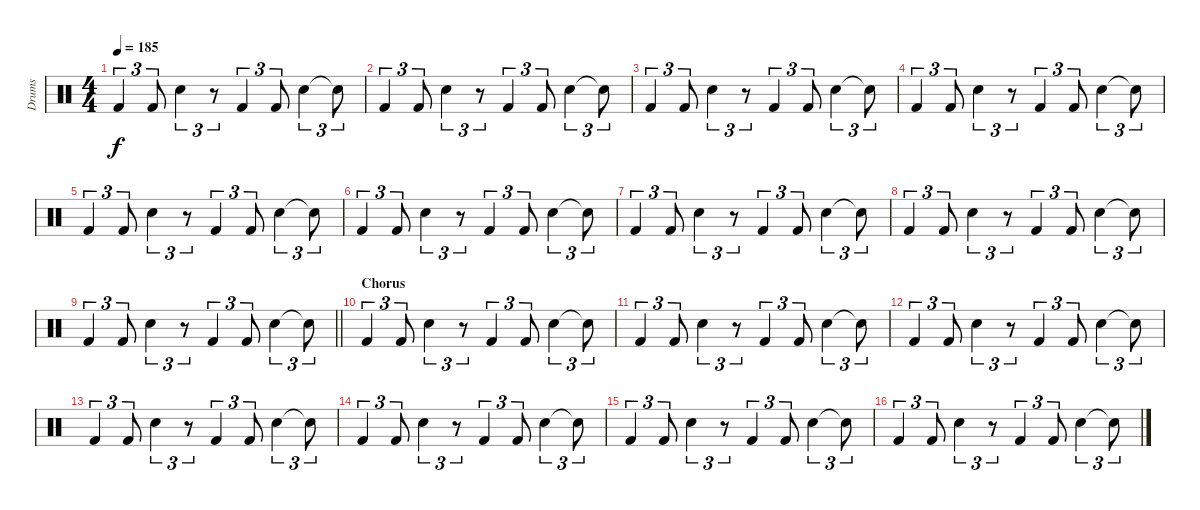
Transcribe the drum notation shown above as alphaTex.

\track ("Drums" "Drums") {instrument percussion}
\staff {score}
\articulation defaults
\ts (4 4)
\tempo 185
\clef neutral
\ks c "Kick (hit) 2".4{tu (3 2) dy f} "Kick (hit) 2".8{tu (3 2)} "Snare (hit) 2".4{tu (3 2)}
r.8{tu (3 2)} "Kick (hit) 2".4{tu (3 2)} "Kick (hit) 2".8{tu (3 2)} "Snare (hit) 2".4{tu (3 2)} "Snare (hit)"{t}.8{tu (3 2)} |
"Kick (hit) 2".4{tu (3 2)} "Kick (hit) 2".8{tu (3 2)} "Snare (hit) 2".4{tu (3 2)} r.8{tu (3 2)} "Kick (hit) 2".4{tu (3 2)} "Kick (hit) 2".8{tu (3 2)} "Snare (hit) 2".4{tu (3 2)} "Snare (hit)"{t}.8{tu (3 2)} |
"Kick (hit) 2".4{tu (3 2)} "Kick (hit) 2".8{tu (3 2)} "Snare (hit) 2".4{tu (3 2)} r.8{tu (3 2)} "Kick (hit) 2".4{tu (3 2)} "Kick (hit) 2".8{tu (3 2)} "Snare (hit) 2".4{tu (3 2)} "Snare (hit)"{t}.8{tu (3 2)} |
"Kick (hit) 2".4{tu (3 2)} "Kick (hit) 2".8{tu (3 2)} "Snare (hit) 2".4{tu (3 2)} r.8{tu (3 2)} "Kick (hit) 2".4{tu (3 2)} "Kick (hit) 2".8{tu (3 2)} "Snare (hit) 2".4{tu (3 2)} "Snare (hit)"{t}.8{tu (3 2)} |
"Kick (hit) 2".4{tu (3 2)} "Kick (hit) 2".8{tu (3 2)} "Snare (hit) 2".4{tu (3 2)} r.8{tu (3 2)} "Kick (hit) 2".4{tu (3 2)} "Kick (hit) 2".8{tu (3 2)} "Snare (hit) 2".4{tu (3 2)} "Snare (hit)"{t}.8{tu (3 2)} |
"Kick (hit) 2".4{tu (3 2)} "Kick (hit) 2".8{tu (3 2)} "Snare (hit) 2".4{tu (3 2)} r.8{tu (3 2)} "Kick (hit) 2".4{tu (3 2)} "Kick (hit) 2".8{tu (3 2)} "Snare (hit) 2".4{tu (3 2)} "Snare (hit)"{t}.8{tu (3 2)} |
"Kick (hit) 2".4{tu (3 2)} "Kick (hit) 2".8{tu (3 2)} "Snare (hit) 2".4{tu (3 2)} r.8{tu (3 2)} "Kick (hit) 2".4{tu (3 2)} "Kick (hit) 2".8{tu (3 2)} "Snare (hit) 2".4{tu (3 2)} "Snare (hit)"{t}.8{tu (3 2)} |
"Kick (hit) 2".4{tu (3 2)} "Kick (hit) 2".8{tu (3 2)} "Snare (hit) 2".4{tu (3 2)} r.8{tu (3 2)} "Kick (hit) 2".4{tu (3 2)} "Kick (hit) 2".8{tu (3 2)} "Snare (hit) 2".4{tu (3 2)} "Snare (hit)"{t}.8{tu (3 2)} |
\barLineRight lightlight "Kick (hit) 2".4{tu (3 2)} "Kick (hit) 2".8{tu (3 2)} "Snare (hit) 2".4{tu (3 2)}
r.8{tu (3 2)} "Kick (hit) 2".4{tu (3 2)} "Kick (hit) 2".8{tu (3 2)} "Snare (hit) 2".4{tu (3 2)} "Snare (hit)"{t}.8{tu (3 2)} |
\section ("" "Chorus")
"Kick (hit) 2".4{tu (3 2)} "Kick (hit) 2".8{tu (3 2)} "Snare (hit) 2".4{tu (3 2)} r.8{tu (3 2)} "Kick (hit) 2".4{tu (3 2)} "Kick (hit) 2".8{tu (3 2)} "Snare (hit) 2".4{tu (3 2)} "Snare (hit)"{t}.8{tu (3 2)} |
"Kick (hit) 2".4{tu (3 2)} "Kick (hit) 2".8{tu (3 2)} "Snare (hit) 2".4{tu (3 2)} r.8{tu (3 2)} "Kick (hit) 2".4{tu (3 2)} "Kick (hit) 2".8{tu (3 2)} "Snare (hit) 2".4{tu (3 2)} "Snare (hit)"{t}.8{tu (3 2)} |
"Kick (hit) 2".4{tu (3 2)} "Kick (hit) 2".8{tu (3 2)} "Snare (hit) 2".4{tu (3 2)} r.8{tu (3 2)} "Kick (hit) 2".4{tu (3 2)} "Kick (hit) 2".8{tu (3 2)} "Snare (hit) 2".4{tu (3 2)} "Snare (hit)"{t}.8{tu (3 2)} |
"Kick (hit) 2".4{tu (3 2)} "Kick (hit) 2".8{tu (3 2)} "Snare (hit) 2".4{tu (3 2)} r.8{tu (3 2)} "Kick (hit) 2".4{tu (3 2)} "Kick (hit) 2".8{tu (3 2)} "Snare (hit) 2".4{tu (3 2)} "Snare (hit)"{t}.8{tu (3 2)} |
"Kick (hit) 2".4{tu (3 2)} "Kick (hit) 2".8{tu (3 2)} "Snare (hit) 2".4{tu (3 2)} r.8{tu (3 2)} "Kick (hit) 2".4{tu (3 2)} "Kick (hit) 2".8{tu (3 2)} "Snare (hit) 2".4{tu (3 2)} "Snare (hit)"{t}.8{tu (3 2)} |
"Kick (hit) 2".4{tu (3 2)} "Kick (hit) 2".8{tu (3 2)} "Snare (hit) 2".4{tu (3 2)} r.8{tu (3 2)} "Kick (hit) 2".4{tu (3 2)} "Kick (hit) 2".8{tu (3 2)} "Snare (hit) 2".4{tu (3 2)} "Snare (hit)"{t}.8{tu (3 2)} |
"Kick (hit) 2".4{tu (3 2)} "Kick (hit) 2".8{tu (3 2)} "Snare (hit) 2".4{tu (3 2)} r.8{tu (3 2)} "Kick (hit) 2".4{tu (3 2)} "Kick (hit) 2".8{tu (3 2)} "Snare (hit) 2".4{tu (3 2)} "Snare (hit)"{t}.8{tu (3 2)}
